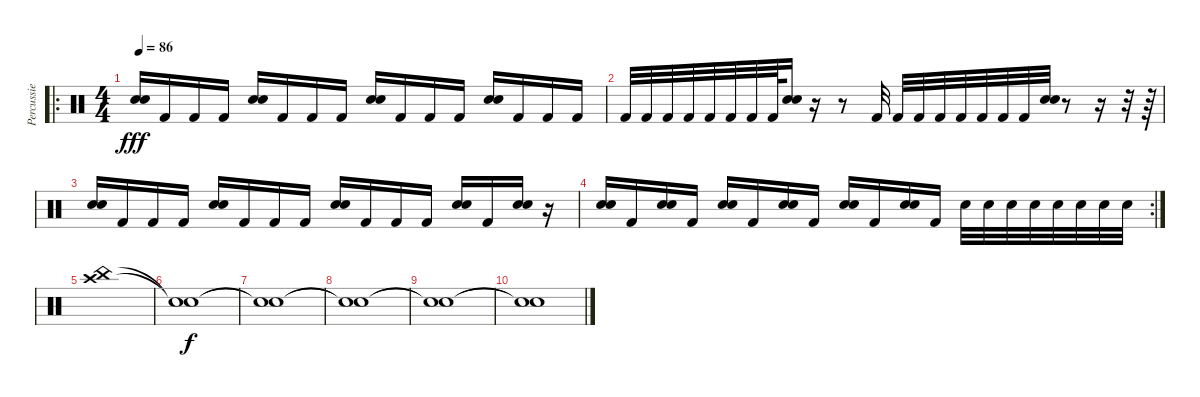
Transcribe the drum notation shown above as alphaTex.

\track ("Percussie" "Percussie") {instrument percussion}
\staff {score}
\articulation defaults
\ro
\ts (4 4)
\tempo 86
\clef neutral
\ks c
("Snare (hit) 2" "Snare (hit) 2").16{bd 480 dy fff} "Kick (hit) 2".16 "Kick (hit) 2".16 "Kick (hit) 2".16 ("Snare (hit) 2" "Snare (hit) 2").16{bd 480} "Kick (hit) 2".16 "Kick (hit) 2".16 "Kick (hit) 2".16 ("Snare (hit) 2" "Snare (hit) 2").16{bd 480} "Kick (hit) 2".16 "Kick (hit) 2".16 "Kick (hit) 2".16 ("Snare (hit) 2" "Snare (hit) 2").16{bd 480} "Kick (hit) 2".16 "Kick (hit) 2".16 "Kick (hit) 2".16 |
"Kick (hit) 2".32 "Kick (hit) 2".32 "Kick (hit) 2".32 "Kick (hit) 2".32 "Kick (hit) 2".32 "Kick (hit) 2".32 "Kick (hit) 2".32 "Kick (hit) 2".64 ("Snare (hit) 2" "Snare (hit) 2").16{bd 480} r.16 r.8 "Kick (hit) 2".32 "Kick (hit) 2".32 "Kick (hit) 2".32 "Kick (hit) 2".32 "Kick (hit) 2".32 "Kick (hit) 2".32 "Kick (hit) 2".32 "Kick (hit) 2".32 ("Snare (hit) 2" "Snare (hit) 2").32{bd 480} r.8 r.16 r.32 r.64 |
("Snare (hit) 2" "Snare (hit) 2").16{bd 480} "Kick (hit) 2".16 "Kick (hit) 2".16 "Kick (hit) 2".16 ("Snare (hit) 2" "Snare (hit) 2").16{bd 480} "Kick (hit) 2".16 "Kick (hit) 2".16 "Kick (hit) 2".16 ("Snare (hit) 2" "Snare (hit) 2").16{bd 480} "Kick (hit) 2".16 "Kick (hit) 2".16 "Kick (hit) 2".16 ("Snare (hit) 2" "Snare (hit) 2").16{bd 480} "Kick (hit) 2".16 ("Snare (hit) 2" "Snare (hit) 2").16{bd 480} r.16 |
\rc 2
("Snare (hit) 2" "Snare (hit) 2").16{bd 480} "Kick (hit) 2".16 ("Snare (hit) 2" "Snare (hit) 2").16{bd 480} "Kick (hit) 2".16 ("Snare (hit) 2" "Snare (hit) 2").16{bd 480} "Kick (hit) 2".16 ("Snare (hit) 2" "Snare (hit) 2").16{bd 480} "Kick (hit) 2".16 ("Snare (hit) 2" "Snare (hit) 2").16{bd 480} "Kick (hit) 2".16 ("Snare (hit) 2" "Snare (hit) 2").16{bd 480} "Kick (hit) 2".16 "Snare (hit) 2".32 "Snare (hit) 2".32 "Snare (hit) 2".32 "Snare (hit) 2".32 "Snare (hit) 2".32 "Snare (hit) 2".32 "Snare (hit) 2".32 "Snare (hit) 2".32 |
("China (hit)" "Crash high (hit)").1 |
("Snare (hit)"{t} "Snare (hit)"{t}).1{dy f} |
("Snare (hit)"{t} "Snare (hit)"{t}).1 |
("Snare (hit)"{t} "Snare (hit)"{t}).1 |
("Snare (hit)"{t} "Snare (hit)"{t}).1 |
("Snare (hit)"{t} "Snare (hit)"{t}).1
